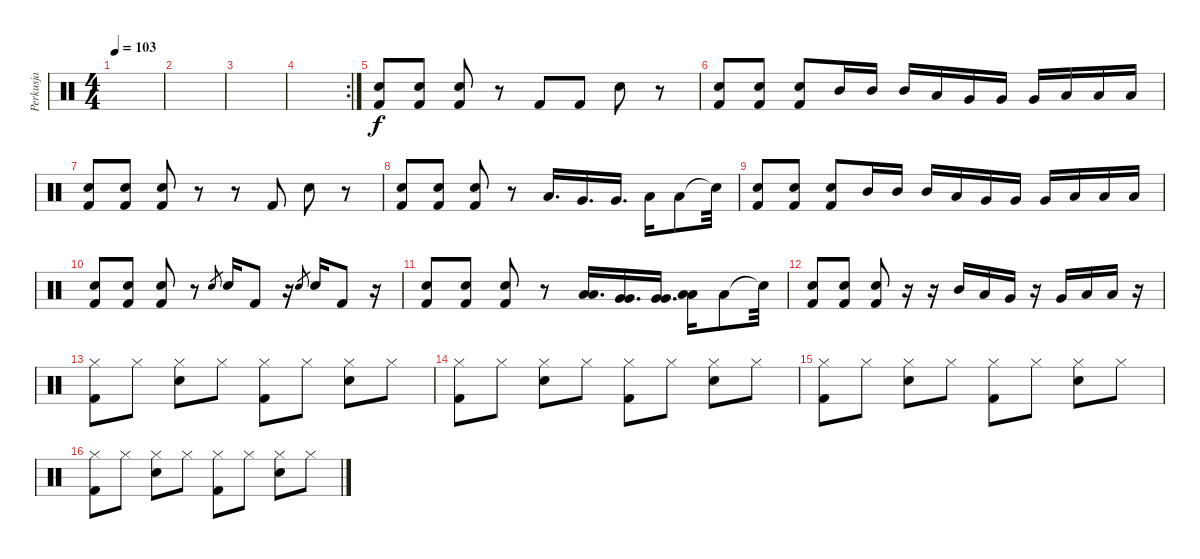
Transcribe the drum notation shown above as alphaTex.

\track ("Perkusja" "Perkusja") {instrument percussion}
\staff {score}
\articulation defaults
\ts (4 4)
\tempo 103
\clef neutral
\ks c
|
|
|
\rc 2
|
("Snare (hit) 2" "Kick (hit) 2").8 ("Snare (hit) 2" "Kick (hit) 2").8 ("Snare (hit) 2" "Kick (hit) 2").8 r.8 "Kick (hit) 2".8 "Kick (hit) 2".8 "Snare (hit) 2".8 r.8 |
("Snare (hit) 2" "Kick (hit) 2").8 ("Snare (hit) 2" "Kick (hit) 2").8 ("Snare (hit) 2" "Kick (hit) 2").8 "Mid Tom (hit)".16 "Mid Tom (hit)".16 "Mid Tom (hit)".16 "Low Tom (hit)".16 "Very Low Tom (hit)".16 "Very Low Tom (hit)".16 "Very Low Tom (hit)".16 "Low Floor Tom (hit)".16 "Low Floor Tom (hit)".16 "Low Floor Tom (hit)".16 |
("Snare (hit) 2" "Kick (hit) 2").8 ("Snare (hit) 2" "Kick (hit) 2").8 ("Snare (hit) 2" "Kick (hit) 2").8 r.8 r.8 "Kick (hit) 2".8 "Snare (hit) 2".8 r.8 |
("Snare (hit) 2" "Kick (hit) 2").8 ("Snare (hit) 2" "Kick (hit) 2").8 ("Snare (hit) 2" "Kick (hit) 2").8 r.8 "Low Tom (hit)".16{d} "Very Low Tom (hit)".16{d} "Very Low Tom (hit)".16{d} "Low Floor Tom (hit)".16 "Low Floor Tom (hit)".8 "Snare (hit)"{t}.32 |
("Snare (hit) 2" "Kick (hit) 2").8 ("Snare (hit) 2" "Kick (hit) 2").8 ("Snare (hit) 2" "Kick (hit) 2").8 "Mid Tom (hit)".16 "Mid Tom (hit)".16 "Mid Tom (hit)".16 "Low Tom (hit)".16 "Very Low Tom (hit)".16 "Very Low Tom (hit)".16 "Very Low Tom (hit)".16 "Low Floor Tom (hit)".16 "Low Floor Tom (hit)".16 "Low Floor Tom (hit)".16 |
("Snare (hit) 2" "Kick (hit) 2").8 ("Snare (hit) 2" "Kick (hit) 2").8 ("Snare (hit) 2" "Kick (hit) 2").8 r.8 "Snare (hit) 2".8{gr} "Snare (hit) 2".16 "Kick (hit) 2".8 r.16 "Snare (hit) 2".8{gr} "Snare (hit) 2".16 "Kick (hit) 2".8 r.16 |
("Snare (hit) 2" "Kick (hit) 2").8 ("Snare (hit) 2" "Kick (hit) 2").8 ("Snare (hit) 2" "Kick (hit) 2").8 r.8 ("Low Tom (hit)" "Low Tom (hit)").16{d} ("Very Low Tom (hit)" "Very Low Tom (hit)").16{d} ("Very Low Tom (hit)" "Very Low Tom (hit)").16{d} ("Low Floor Tom (hit)" "Low Floor Tom (hit)").16 "Low Floor Tom (hit)".8 "Snare (hit)"{t}.32 |
("Snare (hit) 2" "Kick (hit) 2").8 ("Snare (hit) 2" "Kick (hit) 2").8 ("Snare (hit) 2" "Kick (hit) 2").8 r.16 r.16 "Mid Tom (hit)".16 "Low Tom (hit)".16 "Very Low Tom (hit)".16 r.16 "Very Low Tom (hit)".16 "Low Floor Tom (hit)".16 "Low Floor Tom (hit)".16 r.16 |
("Hi-Hat (closed)" "Kick (hit) 2").8 "Hi-Hat (closed)".8 ("Hi-Hat (closed)" "Snare (hit) 2").8 "Hi-Hat (closed)".8 ("Hi-Hat (closed)" "Kick (hit) 2").8 "Hi-Hat (closed)".8 ("Hi-Hat (closed)" "Snare (hit) 2").8 "Hi-Hat (closed)".8 |
("Hi-Hat (closed)" "Kick (hit) 2").8 "Hi-Hat (closed)".8 ("Hi-Hat (closed)" "Snare (hit) 2").8 "Hi-Hat (closed)".8 ("Hi-Hat (closed)" "Kick (hit) 2").8 "Hi-Hat (closed)".8 ("Hi-Hat (closed)" "Snare (hit) 2").8 "Hi-Hat (closed)".8 |
("Hi-Hat (closed)" "Kick (hit) 2").8 "Hi-Hat (closed)".8 ("Hi-Hat (closed)" "Snare (hit) 2").8 "Hi-Hat (closed)".8 ("Hi-Hat (closed)" "Kick (hit) 2").8 "Hi-Hat (closed)".8 ("Hi-Hat (closed)" "Snare (hit) 2").8 "Hi-Hat (closed)".8 |
("Hi-Hat (closed)" "Kick (hit) 2").8 "Hi-Hat (closed)".8 ("Hi-Hat (closed)" "Snare (hit) 2").8 "Hi-Hat (closed)".8 ("Hi-Hat (closed)" "Kick (hit) 2").8 "Hi-Hat (closed)".8 ("Hi-Hat (closed)" "Snare (hit) 2").8 "Hi-Hat (closed)".8
